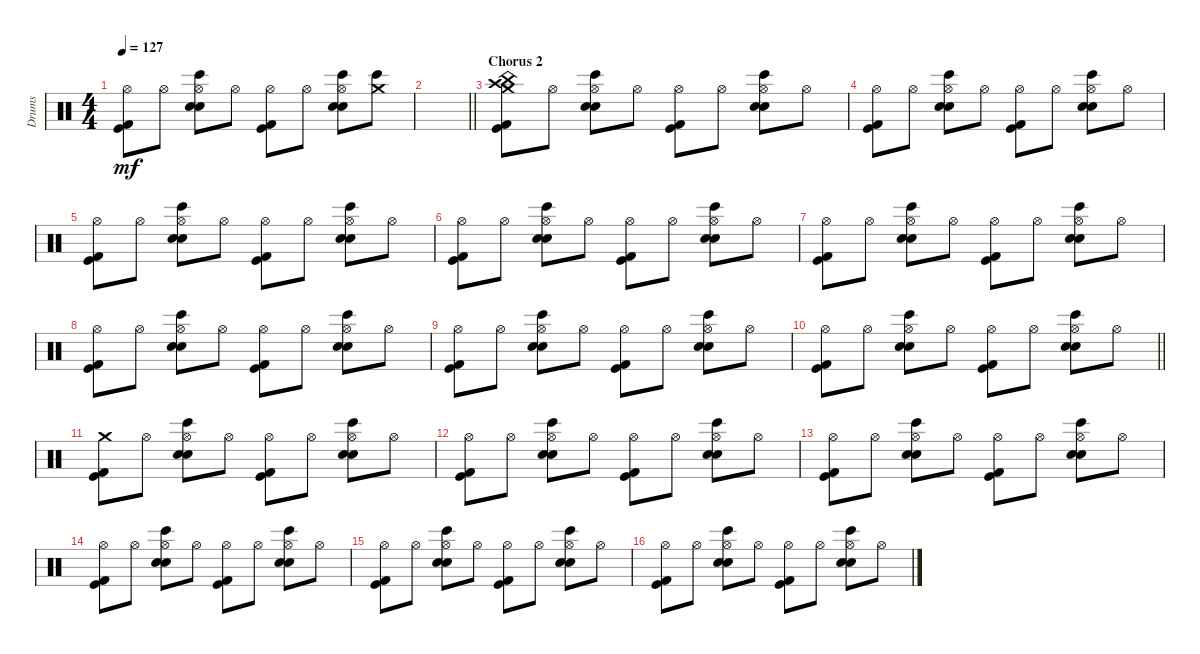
\track ("Drums" "Drums") {instrument percussion}
\staff {score}
\articulation defaults
\ts (4 4)
\tempo 127
\clef neutral
\ks c
("Hi-Hat (open)" "Kick (hit) 2" "Kick (hit)").8{dy mf} "Hi-Hat (open)".8 ("Hi-Hat (open)" "Bongo High (hit)" "Snare (hit) 2" "Electric Snare (hit)").8 "Hi-Hat (open)".8 ("Hi-Hat (open)" "Kick (hit) 2" "Kick (hit)").8 "Hi-Hat (open)".8 ("Hi-Hat (open)" "Bongo High (hit)" "Snare (hit) 2" "Electric Snare (hit)").8 ("Crash medium (hit)" "Bongo High (hit)").8 |
\barLineRight lightlight
|
\section ("" "Chorus 2")
("Crash high (hit)" "Crash medium (hit)" "China (hit)" "Kick (hit) 2" "Kick (hit)").8 "Hi-Hat (open)".8 ("Hi-Hat (open)" "Bongo High (hit)" "Snare (hit) 2" "Electric Snare (hit)").8 "Hi-Hat (open)".8 ("Hi-Hat (open)" "Kick (hit) 2" "Kick (hit)").8 "Hi-Hat (open)".8 ("Hi-Hat (open)" "Bongo High (hit)" "Snare (hit) 2" "Electric Snare (hit)").8 "Hi-Hat (open)".8 |
("Hi-Hat (open)" "Kick (hit) 2" "Kick (hit)").8 "Hi-Hat (open)".8 ("Hi-Hat (open)" "Bongo High (hit)" "Snare (hit) 2" "Electric Snare (hit)").8 "Hi-Hat (open)".8 ("Hi-Hat (open)" "Kick (hit) 2" "Kick (hit)").8 "Hi-Hat (open)".8 ("Hi-Hat (open)" "Bongo High (hit)" "Snare (hit) 2" "Electric Snare (hit)").8 "Hi-Hat (open)".8 |
("Hi-Hat (open)" "Kick (hit) 2" "Kick (hit)").8 "Hi-Hat (open)".8 ("Hi-Hat (open)" "Bongo High (hit)" "Snare (hit) 2" "Electric Snare (hit)").8 "Hi-Hat (open)".8 ("Hi-Hat (open)" "Kick (hit) 2" "Kick (hit)").8 "Hi-Hat (open)".8 ("Hi-Hat (open)" "Bongo High (hit)" "Snare (hit) 2" "Electric Snare (hit)").8 "Hi-Hat (open)".8 |
("Hi-Hat (open)" "Kick (hit) 2" "Kick (hit)").8 "Hi-Hat (open)".8 ("Hi-Hat (open)" "Bongo High (hit)" "Snare (hit) 2" "Electric Snare (hit)").8 "Hi-Hat (open)".8 ("Hi-Hat (open)" "Kick (hit) 2" "Kick (hit)").8 "Hi-Hat (open)".8 ("Hi-Hat (open)" "Bongo High (hit)" "Snare (hit) 2" "Electric Snare (hit)").8 "Hi-Hat (open)".8 |
("Hi-Hat (open)" "Kick (hit) 2" "Kick (hit)").8 "Hi-Hat (open)".8 ("Hi-Hat (open)" "Bongo High (hit)" "Snare (hit) 2" "Electric Snare (hit)").8 "Hi-Hat (open)".8 ("Hi-Hat (open)" "Kick (hit) 2" "Kick (hit)").8 "Hi-Hat (open)".8 ("Hi-Hat (open)" "Bongo High (hit)" "Snare (hit) 2" "Electric Snare (hit)").8 "Hi-Hat (open)".8 |
("Hi-Hat (open)" "Kick (hit) 2" "Kick (hit)").8 "Hi-Hat (open)".8 ("Hi-Hat (open)" "Bongo High (hit)" "Snare (hit) 2" "Electric Snare (hit)").8 "Hi-Hat (open)".8 ("Hi-Hat (open)" "Kick (hit) 2" "Kick (hit)").8 "Hi-Hat (open)".8 ("Hi-Hat (open)" "Bongo High (hit)" "Snare (hit) 2" "Electric Snare (hit)").8 "Hi-Hat (open)".8 |
("Hi-Hat (open)" "Kick (hit) 2" "Kick (hit)").8 "Hi-Hat (open)".8 ("Hi-Hat (open)" "Bongo High (hit)" "Snare (hit) 2" "Electric Snare (hit)").8 "Hi-Hat (open)".8 ("Hi-Hat (open)" "Kick (hit) 2" "Kick (hit)").8 "Hi-Hat (open)".8 ("Hi-Hat (open)" "Bongo High (hit)" "Snare (hit) 2" "Electric Snare (hit)").8 "Hi-Hat (open)".8 |
\barLineRight lightlight
("Hi-Hat (open)" "Kick (hit) 2" "Kick (hit)").8 "Hi-Hat (open)".8 ("Hi-Hat (open)" "Bongo High (hit)" "Snare (hit) 2" "Electric Snare (hit)").8 "Hi-Hat (open)".8 ("Hi-Hat (open)" "Kick (hit) 2" "Kick (hit)").8 "Hi-Hat (open)".8 ("Hi-Hat (open)" "Bongo High (hit)" "Snare (hit) 2" "Electric Snare (hit)").8 "Hi-Hat (open)".8 |
("Crash medium (hit)" "Kick (hit) 2" "Kick (hit)").8 "Hi-Hat (open)".8 ("Hi-Hat (open)" "Bongo High (hit)" "Snare (hit) 2" "Electric Snare (hit)").8 "Hi-Hat (open)".8 ("Hi-Hat (open)" "Kick (hit) 2" "Kick (hit)").8 "Hi-Hat (open)".8 ("Hi-Hat (open)" "Bongo High (hit)" "Snare (hit) 2" "Electric Snare (hit)").8 "Hi-Hat (open)".8 |
("Hi-Hat (open)" "Kick (hit) 2" "Kick (hit)").8 "Hi-Hat (open)".8 ("Hi-Hat (open)" "Bongo High (hit)" "Snare (hit) 2" "Electric Snare (hit)").8 "Hi-Hat (open)".8 ("Hi-Hat (open)" "Kick (hit) 2" "Kick (hit)").8 "Hi-Hat (open)".8 ("Hi-Hat (open)" "Bongo High (hit)" "Snare (hit) 2" "Electric Snare (hit)").8 "Hi-Hat (open)".8 |
("Hi-Hat (open)" "Kick (hit) 2" "Kick (hit)").8 "Hi-Hat (open)".8 ("Hi-Hat (open)" "Bongo High (hit)" "Snare (hit) 2" "Electric Snare (hit)").8 "Hi-Hat (open)".8 ("Hi-Hat (open)" "Kick (hit) 2" "Kick (hit)").8 "Hi-Hat (open)".8 ("Hi-Hat (open)" "Bongo High (hit)" "Snare (hit) 2" "Electric Snare (hit)").8 "Hi-Hat (open)".8 |
("Hi-Hat (open)" "Kick (hit) 2" "Kick (hit)").8 "Hi-Hat (open)".8 ("Hi-Hat (open)" "Bongo High (hit)" "Snare (hit) 2" "Electric Snare (hit)").8 "Hi-Hat (open)".8 ("Hi-Hat (open)" "Kick (hit) 2" "Kick (hit)").8 "Hi-Hat (open)".8 ("Hi-Hat (open)" "Bongo High (hit)" "Snare (hit) 2" "Electric Snare (hit)").8 "Hi-Hat (open)".8 |
("Hi-Hat (open)" "Kick (hit) 2" "Kick (hit)").8 "Hi-Hat (open)".8 ("Hi-Hat (open)" "Bongo High (hit)" "Snare (hit) 2" "Electric Snare (hit)").8 "Hi-Hat (open)".8 ("Hi-Hat (open)" "Kick (hit) 2" "Kick (hit)").8 "Hi-Hat (open)".8 ("Hi-Hat (open)" "Bongo High (hit)" "Snare (hit) 2" "Electric Snare (hit)").8 "Hi-Hat (open)".8 |
("Hi-Hat (open)" "Kick (hit) 2" "Kick (hit)").8 "Hi-Hat (open)".8 ("Hi-Hat (open)" "Bongo High (hit)" "Snare (hit) 2" "Electric Snare (hit)").8 "Hi-Hat (open)".8 ("Hi-Hat (open)" "Kick (hit) 2" "Kick (hit)").8 "Hi-Hat (open)".8 ("Hi-Hat (open)" "Bongo High (hit)" "Snare (hit) 2" "Electric Snare (hit)").8 "Hi-Hat (open)".8
